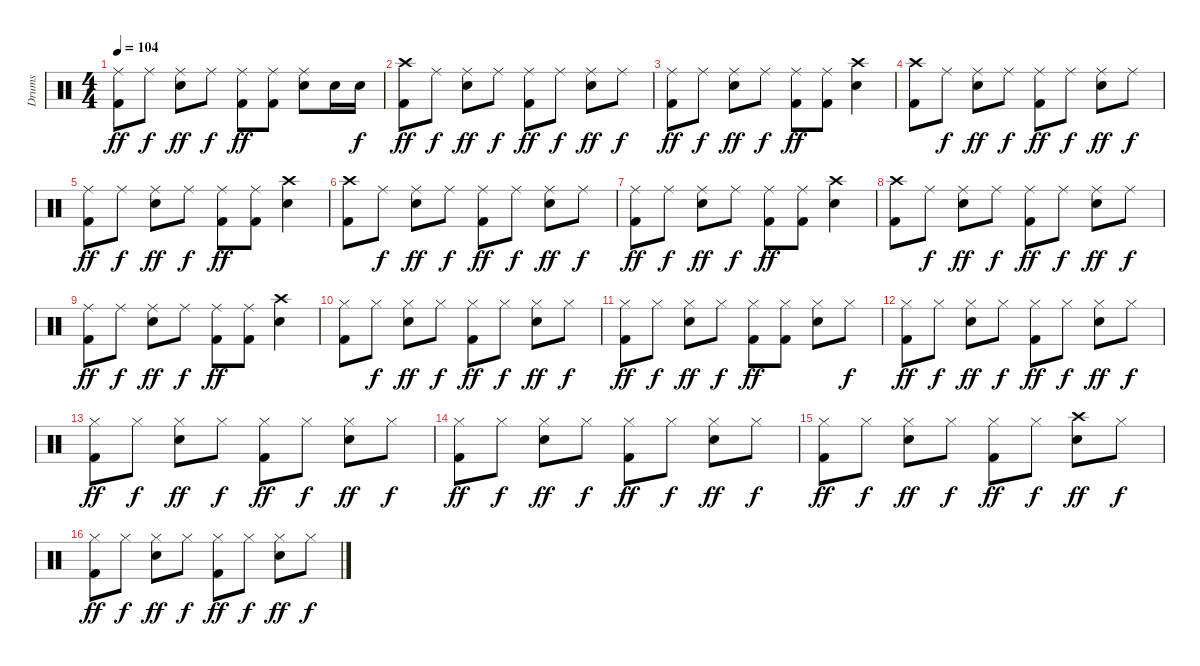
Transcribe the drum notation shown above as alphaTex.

\track ("Drums" "Drums") {instrument percussion}
\staff {score}
\articulation defaults
\ts (4 4)
\tempo 104
\clef neutral
\ks c
("Ride (middle)" "Kick (hit) 2").8{dy ff} "Ride (middle)".8{dy f} ("Ride (middle)" "Snare (hit) 2").8{dy ff} "Ride (middle)".8{dy f} ("Ride (middle)" "Kick (hit) 2").8{dy ff} ("Ride (middle)" "Kick (hit) 2").8 ("Ride (middle)" "Snare (hit) 2").8 "Snare (hit) 2".16 "Snare (hit) 2".16{dy f} |
("Crash high (hit)" "Kick (hit) 2").8{dy ff} "Ride (middle)".8{dy f} ("Ride (middle)" "Snare (hit) 2").8{dy ff} "Ride (middle)".8{dy f} ("Ride (middle)" "Kick (hit) 2").8{dy ff} "Ride (middle)".8{dy f} ("Ride (middle)" "Snare (hit) 2").8{dy ff} "Ride (middle)".8{dy f} |
("Ride (middle)" "Kick (hit) 2").8{dy ff} "Ride (middle)".8{dy f} ("Ride (middle)" "Snare (hit) 2").8{dy ff} "Ride (middle)".8{dy f} ("Ride (middle)" "Kick (hit) 2").8{dy ff} ("Ride (middle)" "Kick (hit) 2").8 ("Crash high (hit)" "Snare (hit) 2").4 |
("Crash high (hit)" "Kick (hit) 2").8 "Ride (middle)".8{dy f} ("Ride (middle)" "Snare (hit) 2").8{dy ff} "Ride (middle)".8{dy f} ("Ride (middle)" "Kick (hit) 2").8{dy ff} "Ride (middle)".8{dy f} ("Ride (middle)" "Snare (hit) 2").8{dy ff} "Ride (middle)".8{dy f} |
("Ride (middle)" "Kick (hit) 2").8{dy ff} "Ride (middle)".8{dy f} ("Ride (middle)" "Snare (hit) 2").8{dy ff} "Ride (middle)".8{dy f} ("Ride (middle)" "Kick (hit) 2").8{dy ff} ("Ride (middle)" "Kick (hit) 2").8 ("Crash high (hit)" "Snare (hit) 2").4 |
("Crash high (hit)" "Kick (hit) 2").8 "Ride (middle)".8{dy f} ("Ride (middle)" "Snare (hit) 2").8{dy ff} "Ride (middle)".8{dy f} ("Ride (middle)" "Kick (hit) 2").8{dy ff} "Ride (middle)".8{dy f} ("Ride (middle)" "Snare (hit) 2").8{dy ff} "Ride (middle)".8{dy f} |
("Ride (middle)" "Kick (hit) 2").8{dy ff} "Ride (middle)".8{dy f} ("Ride (middle)" "Snare (hit) 2").8{dy ff} "Ride (middle)".8{dy f} ("Ride (middle)" "Kick (hit) 2").8{dy ff} ("Ride (middle)" "Kick (hit) 2").8 ("Crash high (hit)" "Snare (hit) 2").4 |
("Crash high (hit)" "Kick (hit) 2").8 "Ride (middle)".8{dy f} ("Ride (middle)" "Snare (hit) 2").8{dy ff} "Ride (middle)".8{dy f} ("Ride (middle)" "Kick (hit) 2").8{dy ff} "Ride (middle)".8{dy f} ("Ride (middle)" "Snare (hit) 2").8{dy ff} "Ride (middle)".8{dy f} |
("Ride (middle)" "Kick (hit) 2").8{dy ff} "Ride (middle)".8{dy f} ("Ride (middle)" "Snare (hit) 2").8{dy ff} "Ride (middle)".8{dy f} ("Ride (middle)" "Kick (hit) 2").8{dy ff} ("Ride (middle)" "Kick (hit) 2").8 ("Crash high (hit)" "Snare (hit) 2").4 |
("Hi-Hat (closed)" "Kick (hit) 2").8 "Hi-Hat (closed)".8{dy f} ("Hi-Hat (closed)" "Snare (hit) 2").8{dy ff} "Hi-Hat (closed)".8{dy f} ("Hi-Hat (closed)" "Kick (hit) 2").8{dy ff} "Hi-Hat (closed)".8{dy f} ("Hi-Hat (closed)" "Snare (hit) 2").8{dy ff} "Hi-Hat (closed)".8{dy f} |
("Hi-Hat (closed)" "Kick (hit) 2").8{dy ff} "Hi-Hat (closed)".8{dy f} ("Hi-Hat (closed)" "Snare (hit) 2").8{dy ff} "Hi-Hat (closed)".8{dy f} ("Hi-Hat (closed)" "Kick (hit) 2").8{dy ff} ("Hi-Hat (closed)" "Kick (hit) 2").8 ("Hi-Hat (closed)" "Snare (hit) 2").8 "Hi-Hat (closed)".8{dy f} |
("Hi-Hat (closed)" "Kick (hit) 2").8{dy ff} "Hi-Hat (closed)".8{dy f} ("Hi-Hat (closed)" "Snare (hit) 2").8{dy ff} "Hi-Hat (closed)".8{dy f} ("Hi-Hat (closed)" "Kick (hit) 2").8{dy ff} "Hi-Hat (closed)".8{dy f} ("Hi-Hat (closed)" "Snare (hit) 2").8{dy ff} "Hi-Hat (closed)".8{dy f} |
("Hi-Hat (closed)" "Kick (hit) 2").8{dy ff} "Hi-Hat (closed)".8{dy f} ("Hi-Hat (closed)" "Snare (hit) 2").8{dy ff} "Hi-Hat (closed)".8{dy f} ("Hi-Hat (closed)" "Kick (hit) 2").8{dy ff} "Hi-Hat (closed)".8{dy f} ("Hi-Hat (closed)" "Snare (hit) 2").8{dy ff} "Hi-Hat (closed)".8{dy f} |
("Hi-Hat (closed)" "Kick (hit) 2").8{dy ff} "Hi-Hat (closed)".8{dy f} ("Hi-Hat (closed)" "Snare (hit) 2").8{dy ff} "Hi-Hat (closed)".8{dy f} ("Hi-Hat (closed)" "Kick (hit) 2").8{dy ff} "Hi-Hat (closed)".8{dy f} ("Hi-Hat (closed)" "Snare (hit) 2").8{dy ff} "Hi-Hat (closed)".8{dy f} |
("Hi-Hat (closed)" "Kick (hit) 2").8{dy ff} "Hi-Hat (closed)".8{dy f} ("Hi-Hat (closed)" "Snare (hit) 2").8{dy ff} "Hi-Hat (closed)".8{dy f} ("Hi-Hat (closed)" "Kick (hit) 2").8{dy ff} "Hi-Hat (closed)".8{dy f} ("Crash high (hit)" "Snare (hit) 2").8{dy ff} "Hi-Hat (closed)".8{dy f} |
("Hi-Hat (closed)" "Kick (hit) 2").8{dy ff} "Hi-Hat (closed)".8{dy f} ("Hi-Hat (closed)" "Snare (hit) 2").8{dy ff} "Hi-Hat (closed)".8{dy f} ("Hi-Hat (closed)" "Kick (hit) 2").8{dy ff} "Hi-Hat (closed)".8{dy f} ("Hi-Hat (closed)" "Snare (hit) 2").8{dy ff} "Hi-Hat (closed)".8{dy f}
